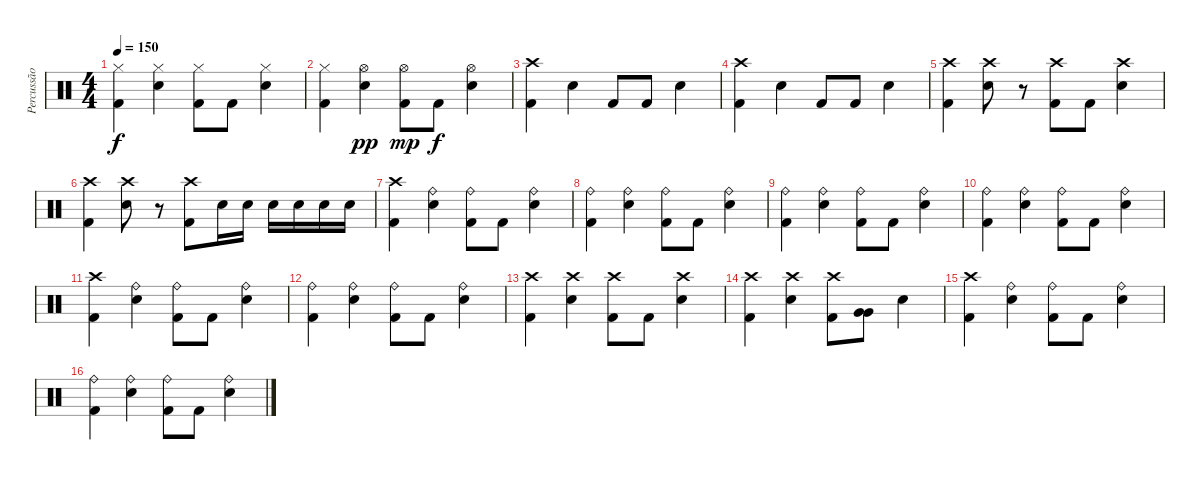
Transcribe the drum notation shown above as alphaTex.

\track ("Percussão" "Percussão") {instrument percussion}
\staff {score}
\articulation defaults
\ts (4 4)
\tempo 150
\clef neutral
\ks c
("Hi-Hat (closed)" "Kick (hit) 2").4{dy f} ("Hi-Hat (closed)" "Electric Snare (hit)").4 ("Hi-Hat (closed)" "Kick (hit) 2").8 "Kick (hit) 2".8 ("Hi-Hat (closed)" "Electric Snare (hit)").4 |
("Hi-Hat (closed)" "Kick (hit) 2").4 ("Hi-Hat (open)" "Electric Snare (hit)").4{dy pp} ("Hi-Hat (open)" "Kick (hit) 2").8{dy mp} "Kick (hit) 2".8{dy f} ("Hi-Hat (open)" "Electric Snare (hit)").4 |
("Crash high (hit)" "Kick (hit) 2").4 "Electric Snare (hit)".4 "Kick (hit) 2".8 "Kick (hit) 2".8 "Electric Snare (hit)".4 |
("Crash high (hit)" "Kick (hit) 2").4 "Electric Snare (hit)".4 "Kick (hit) 2".8 "Kick (hit) 2".8 "Electric Snare (hit)".4 |
("Crash high (hit)" "Kick (hit) 2").4 ("Crash high (hit)" "Electric Snare (hit)").8 r.8 ("Crash high (hit)" "Kick (hit) 2").8 "Kick (hit) 2".8 ("Crash high (hit)" "Electric Snare (hit)").4 |
("Crash high (hit)" "Kick (hit) 2").4 ("Crash high (hit)" "Electric Snare (hit)").8 r.8 ("Crash high (hit)" "Kick (hit) 2").8 "Electric Snare (hit)".16 "Electric Snare (hit)".16 "Electric Snare (hit)".16 "Electric Snare (hit)".16 "Electric Snare (hit)".16 "Electric Snare (hit)".16 |
("Crash high (hit)" "Kick (hit) 2").4 ("Ride (bell)" "Electric Snare (hit)").4 ("Ride (bell)" "Kick (hit) 2").8 "Kick (hit) 2".8 ("Ride (bell)" "Electric Snare (hit)").4 |
("Ride (bell)" "Kick (hit) 2").4 ("Ride (bell)" "Electric Snare (hit)").4 ("Ride (bell)" "Kick (hit) 2").8 "Kick (hit) 2".8 ("Ride (bell)" "Electric Snare (hit)").4 |
("Ride (bell)" "Kick (hit) 2").4 ("Ride (bell)" "Electric Snare (hit)").4 ("Ride (bell)" "Kick (hit) 2").8 "Kick (hit) 2".8 ("Ride (bell)" "Electric Snare (hit)").4 |
("Ride (bell)" "Kick (hit) 2").4 ("Ride (bell)" "Electric Snare (hit)").4 ("Ride (bell)" "Kick (hit) 2").8 "Kick (hit) 2".8 ("Ride (bell)" "Electric Snare (hit)").4 |
("Crash high (hit)" "Kick (hit) 2").4 ("Ride (bell)" "Electric Snare (hit)").4 ("Ride (bell)" "Kick (hit) 2").8 "Kick (hit) 2".8 ("Ride (bell)" "Electric Snare (hit)").4 |
("Ride (bell)" "Kick (hit) 2").4 ("Ride (bell)" "Electric Snare (hit)").4 ("Ride (bell)" "Kick (hit) 2").8 "Kick (hit) 2".8 ("Ride (bell)" "Electric Snare (hit)").4 |
("Crash high (hit)" "Kick (hit) 2").4 ("Crash high (hit)" "Electric Snare (hit)").4 ("Crash high (hit)" "Kick (hit) 2").8 "Kick (hit) 2".8 ("Crash high (hit)" "Electric Snare (hit)").4 |
("Crash high (hit)" "Kick (hit) 2").4 ("Crash high (hit)" "Electric Snare (hit)").4 ("Crash high (hit)" "Kick (hit) 2").8 ("Very Low Tom (hit)" "Very Low Tom (hit)").8 "Electric Snare (hit)".4 |
("Crash high (hit)" "Kick (hit) 2").4 ("Ride (bell)" "Electric Snare (hit)").4 ("Ride (bell)" "Kick (hit) 2").8 "Kick (hit) 2".8 ("Ride (bell)" "Electric Snare (hit)").4 |
("Ride (bell)" "Kick (hit) 2").4 ("Ride (bell)" "Electric Snare (hit)").4 ("Ride (bell)" "Kick (hit) 2").8 "Kick (hit) 2".8 ("Ride (bell)" "Electric Snare (hit)").4
